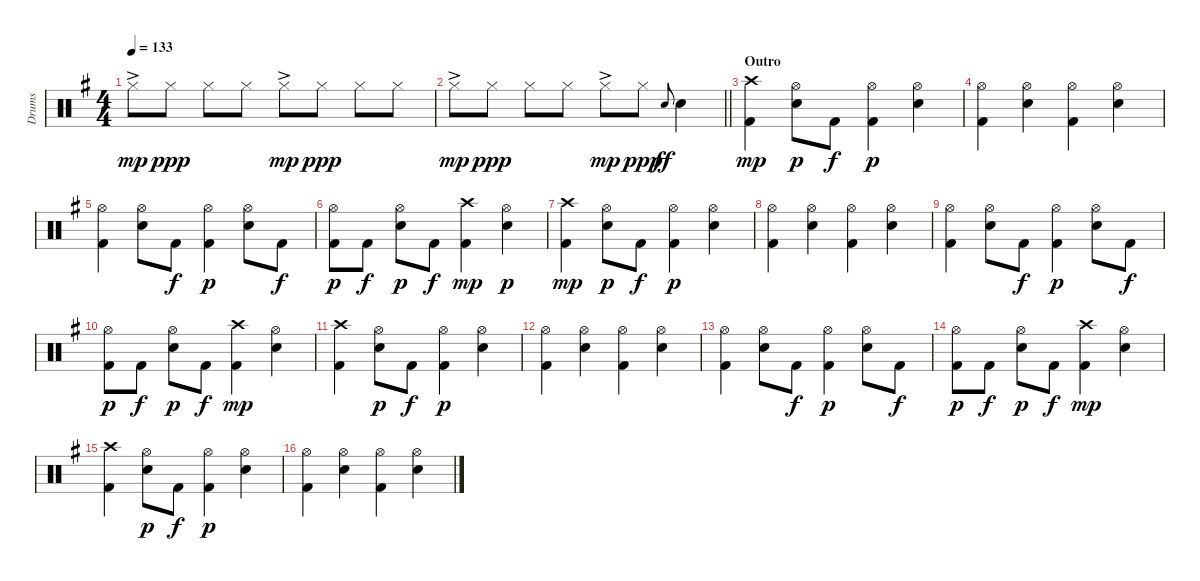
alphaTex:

\track ("Drums" "Drums") {instrument percussion}
\staff {score}
\articulation defaults
\ts (4 4)
\tempo 133
\clef neutral
\ks g "Hi-Hat (closed)"{ac}.8{dy mp} "Hi-Hat (closed)".8{dy ppp} "Hi-Hat (closed)".8 "Hi-Hat (closed)".8 "Hi-Hat (closed)"{ac}.8{dy mp} "Hi-Hat (closed)".8{dy ppp} "Hi-Hat (closed)".8 "Hi-Hat (closed)".8
|
\barLineRight lightlight "Hi-Hat (closed)"{ac}.8{dy mp} "Hi-Hat (closed)".8{dy ppp} "Hi-Hat (closed)".8 "Hi-Hat (closed)".8 "Hi-Hat (closed)"{ac}.8{dy mp} "Hi-Hat (closed)".8{dy ppp} "Electric Snare (hit)".8{gr onbeat dy ff} "Electric Snare (hit)".4{volume 13}
|
\section ("" "Outro")
("Crash high (hit)" "Kick (hit) 2").4{dy mp} ("Electric Snare (hit)" "Hi-Hat (open)").8{dy p} "Kick (hit) 2".8{dy f} ("Kick (hit) 2" "Hi-Hat (open)").4{dy p} ("Electric Snare (hit)" "Hi-Hat (open)").4 |
("Kick (hit) 2" "Hi-Hat (open)").4 ("Electric Snare (hit)" "Hi-Hat (open)").4 ("Kick (hit) 2" "Hi-Hat (open)").4 ("Electric Snare (hit)" "Hi-Hat (open)").4 |
("Kick (hit) 2" "Hi-Hat (open)").4 ("Electric Snare (hit)" "Hi-Hat (open)").8 "Kick (hit) 2".8{dy f} ("Kick (hit) 2" "Hi-Hat (open)").4{dy p} ("Electric Snare (hit)" "Hi-Hat (open)").8 "Kick (hit) 2".8{dy f} |
("Kick (hit) 2" "Hi-Hat (open)").8{dy p} "Kick (hit) 2".8{dy f} ("Electric Snare (hit)" "Hi-Hat (open)").8{dy p} "Kick (hit) 2".8{dy f} ("Kick (hit) 2" "Crash high (hit)").4{dy mp} ("Electric Snare (hit)" "Hi-Hat (open)").4{dy p} |
("Crash high (hit)" "Kick (hit) 2").4{dy mp} ("Electric Snare (hit)" "Hi-Hat (open)").8{dy p} "Kick (hit) 2".8{dy f} ("Kick (hit) 2" "Hi-Hat (open)").4{dy p} ("Electric Snare (hit)" "Hi-Hat (open)").4 |
("Kick (hit) 2" "Hi-Hat (open)").4 ("Electric Snare (hit)" "Hi-Hat (open)").4 ("Kick (hit) 2" "Hi-Hat (open)").4 ("Electric Snare (hit)" "Hi-Hat (open)").4 |
("Kick (hit) 2" "Hi-Hat (open)").4 ("Electric Snare (hit)" "Hi-Hat (open)").8 "Kick (hit) 2".8{dy f} ("Kick (hit) 2" "Hi-Hat (open)").4{dy p} ("Electric Snare (hit)" "Hi-Hat (open)").8 "Kick (hit) 2".8{dy f} |
("Kick (hit) 2" "Hi-Hat (open)").8{dy p} "Kick (hit) 2".8{dy f} ("Electric Snare (hit)" "Hi-Hat (open)").8{dy p} "Kick (hit) 2".8{dy f} ("Kick (hit) 2" "Crash high (hit)").4{dy mp} ("Electric Snare (hit)" "Hi-Hat (open)").4 |
("Crash high (hit)" "Kick (hit) 2").4 ("Electric Snare (hit)" "Hi-Hat (open)").8{dy p} "Kick (hit) 2".8{dy f} ("Kick (hit) 2" "Hi-Hat (open)").4{dy p} ("Electric Snare (hit)" "Hi-Hat (open)").4 |
("Kick (hit) 2" "Hi-Hat (open)").4 ("Electric Snare (hit)" "Hi-Hat (open)").4 ("Kick (hit) 2" "Hi-Hat (open)").4 ("Electric Snare (hit)" "Hi-Hat (open)").4 |
("Kick (hit) 2" "Hi-Hat (open)").4 ("Electric Snare (hit)" "Hi-Hat (open)").8 "Kick (hit) 2".8{dy f} ("Kick (hit) 2" "Hi-Hat (open)").4{dy p} ("Electric Snare (hit)" "Hi-Hat (open)").8 "Kick (hit) 2".8{dy f} |
("Kick (hit) 2" "Hi-Hat (open)").8{dy p} "Kick (hit) 2".8{dy f} ("Electric Snare (hit)" "Hi-Hat (open)").8{dy p} "Kick (hit) 2".8{dy f} ("Kick (hit) 2" "Crash high (hit)").4{dy mp} ("Electric Snare (hit)" "Hi-Hat (open)").4 |
("Crash high (hit)" "Kick (hit) 2").4 ("Electric Snare (hit)" "Hi-Hat (open)").8{dy p} "Kick (hit) 2".8{dy f} ("Kick (hit) 2" "Hi-Hat (open)").4{dy p} ("Electric Snare (hit)" "Hi-Hat (open)").4 |
("Kick (hit) 2" "Hi-Hat (open)").4 ("Electric Snare (hit)" "Hi-Hat (open)").4 ("Kick (hit) 2" "Hi-Hat (open)").4 ("Electric Snare (hit)" "Hi-Hat (open)").4
